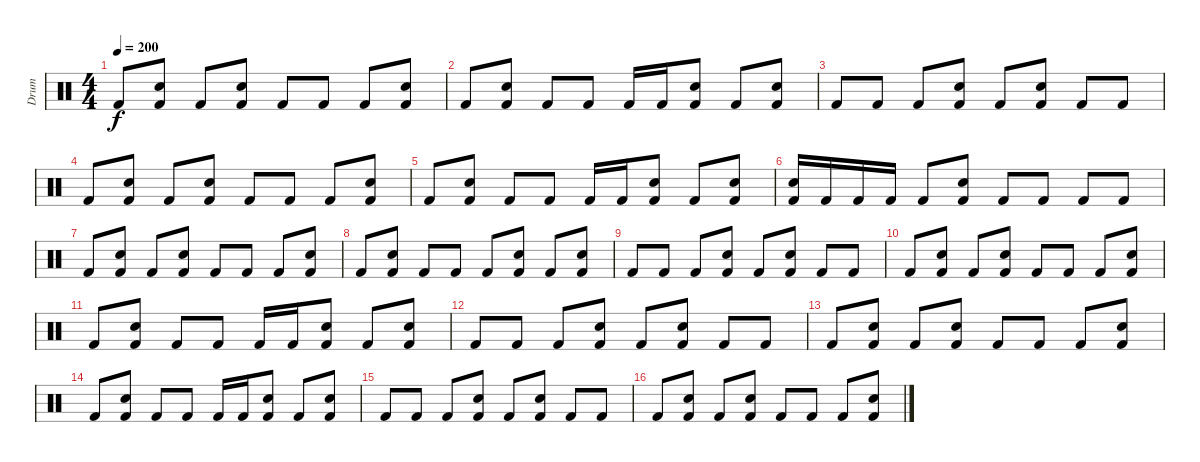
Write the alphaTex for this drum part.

\track ("Drum" "Drum") {instrument percussion}
\staff {score}
\articulation defaults
\ts (4 4)
\tempo 200
\clef neutral
\ks c "Kick (hit) 2".8{dy f}
("Snare (hit) 2" "Kick (hit) 2").8 "Kick (hit) 2".8 ("Snare (hit) 2" "Kick (hit) 2").8 "Kick (hit) 2".8 "Kick (hit) 2".8 "Kick (hit) 2".8 ("Snare (hit) 2" "Kick (hit) 2").8 |
"Kick (hit) 2".8 ("Snare (hit) 2" "Kick (hit) 2").8 "Kick (hit) 2".8 "Kick (hit) 2".8 "Kick (hit) 2".16 "Kick (hit) 2".16 ("Snare (hit) 2" "Kick (hit) 2").8 "Kick (hit) 2".8 ("Snare (hit) 2" "Kick (hit) 2").8 |
"Kick (hit) 2".8 "Kick (hit) 2".8 "Kick (hit) 2".8 ("Snare (hit) 2" "Kick (hit) 2").8 "Kick (hit) 2".8 ("Snare (hit) 2" "Kick (hit) 2").8 "Kick (hit) 2".8 "Kick (hit) 2".8 |
"Kick (hit) 2".8 ("Snare (hit) 2" "Kick (hit) 2").8 "Kick (hit) 2".8 ("Snare (hit) 2" "Kick (hit) 2").8 "Kick (hit) 2".8 "Kick (hit) 2".8 "Kick (hit) 2".8 ("Snare (hit) 2" "Kick (hit) 2").8 |
"Kick (hit) 2".8 ("Snare (hit) 2" "Kick (hit) 2").8 "Kick (hit) 2".8 "Kick (hit) 2".8 "Kick (hit) 2".16 "Kick (hit) 2".16 ("Snare (hit) 2" "Kick (hit) 2").8 "Kick (hit) 2".8 ("Snare (hit) 2" "Kick (hit) 2").8 |
("Electric Snare (hit)" "Kick (hit) 2").16 "Kick (hit) 2".16 "Kick (hit) 2".16 "Kick (hit) 2".16 "Kick (hit) 2".8 ("Electric Snare (hit)" "Kick (hit) 2").8 "Kick (hit) 2".8 "Kick (hit) 2".8 "Kick (hit) 2".8 "Kick (hit) 2".8 |
"Kick (hit) 2".8 ("Snare (hit) 2" "Kick (hit) 2").8 "Kick (hit) 2".8 ("Snare (hit) 2" "Kick (hit) 2").8 "Kick (hit) 2".8 "Kick (hit) 2".8 "Kick (hit) 2".8 ("Snare (hit) 2" "Kick (hit) 2").8 |
"Kick (hit) 2".8 ("Snare (hit) 2" "Kick (hit) 2").8 "Kick (hit) 2".8 "Kick (hit) 2".8 "Kick (hit) 2".8 ("Snare (hit) 2" "Kick (hit) 2").8 "Kick (hit) 2".8 ("Snare (hit) 2" "Kick (hit) 2").8 |
"Kick (hit) 2".8 "Kick (hit) 2".8 "Kick (hit) 2".8 ("Snare (hit) 2" "Kick (hit) 2").8 "Kick (hit) 2".8 ("Snare (hit) 2" "Kick (hit) 2").8 "Kick (hit) 2".8 "Kick (hit) 2".8 |
"Kick (hit) 2".8 ("Snare (hit) 2" "Kick (hit) 2").8 "Kick (hit) 2".8 ("Snare (hit) 2" "Kick (hit) 2").8 "Kick (hit) 2".8 "Kick (hit) 2".8 "Kick (hit) 2".8 ("Snare (hit) 2" "Kick (hit) 2").8 |
"Kick (hit) 2".8 ("Snare (hit) 2" "Kick (hit) 2").8 "Kick (hit) 2".8 "Kick (hit) 2".8 "Kick (hit) 2".16 "Kick (hit) 2".16 ("Snare (hit) 2" "Kick (hit) 2").8 "Kick (hit) 2".8 ("Snare (hit) 2" "Kick (hit) 2").8 |
"Kick (hit) 2".8 "Kick (hit) 2".8 "Kick (hit) 2".8 ("Snare (hit) 2" "Kick (hit) 2").8 "Kick (hit) 2".8 ("Snare (hit) 2" "Kick (hit) 2").8 "Kick (hit) 2".8 "Kick (hit) 2".8 |
"Kick (hit) 2".8 ("Snare (hit) 2" "Kick (hit) 2").8 "Kick (hit) 2".8 ("Snare (hit) 2" "Kick (hit) 2").8 "Kick (hit) 2".8 "Kick (hit) 2".8 "Kick (hit) 2".8 ("Snare (hit) 2" "Kick (hit) 2").8 |
"Kick (hit) 2".8 ("Snare (hit) 2" "Kick (hit) 2").8 "Kick (hit) 2".8 "Kick (hit) 2".8 "Kick (hit) 2".16 "Kick (hit) 2".16 ("Snare (hit) 2" "Kick (hit) 2").8 "Kick (hit) 2".8 ("Snare (hit) 2" "Kick (hit) 2").8 |
"Kick (hit) 2".8 "Kick (hit) 2".8 "Kick (hit) 2".8 ("Snare (hit) 2" "Kick (hit) 2").8 "Kick (hit) 2".8 ("Snare (hit) 2" "Kick (hit) 2").8 "Kick (hit) 2".8 "Kick (hit) 2".8 |
"Kick (hit) 2".8 ("Snare (hit) 2" "Kick (hit) 2").8 "Kick (hit) 2".8 ("Snare (hit) 2" "Kick (hit) 2").8 "Kick (hit) 2".8 "Kick (hit) 2".8 "Kick (hit) 2".8 ("Snare (hit) 2" "Kick (hit) 2").8
